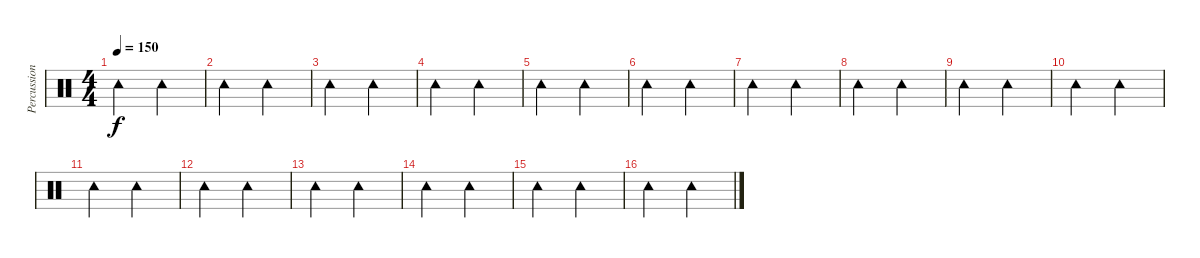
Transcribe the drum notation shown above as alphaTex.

\track ("Percussion" "Percussion") {instrument percussion}
\staff {score}
\articulation defaults
\ts (4 4)
\tempo 150
\clef neutral
\ks c "Tambourine (hit)".2{dy f} "Tambourine (hit)".2
|
"Tambourine (hit)".2 "Tambourine (hit)".2 |
"Tambourine (hit)".2 "Tambourine (hit)".2 |
"Tambourine (hit)".2 "Tambourine (hit)".2 |
"Tambourine (hit)".2 "Tambourine (hit)".2 |
"Tambourine (hit)".2 "Tambourine (hit)".2 |
"Tambourine (hit)".2 "Tambourine (hit)".2 |
"Tambourine (hit)".2 "Tambourine (hit)".2 |
"Tambourine (hit)".2 "Tambourine (hit)".2 |
"Tambourine (hit)".2 "Tambourine (hit)".2 |
"Tambourine (hit)".2 "Tambourine (hit)".2 |
"Tambourine (hit)".2 "Tambourine (hit)".2 |
"Tambourine (hit)".2 "Tambourine (hit)".2 |
"Tambourine (hit)".2 "Tambourine (hit)".2 |
"Tambourine (hit)".2 "Tambourine (hit)".2 |
"Tambourine (hit)".2 "Tambourine (hit)".2
